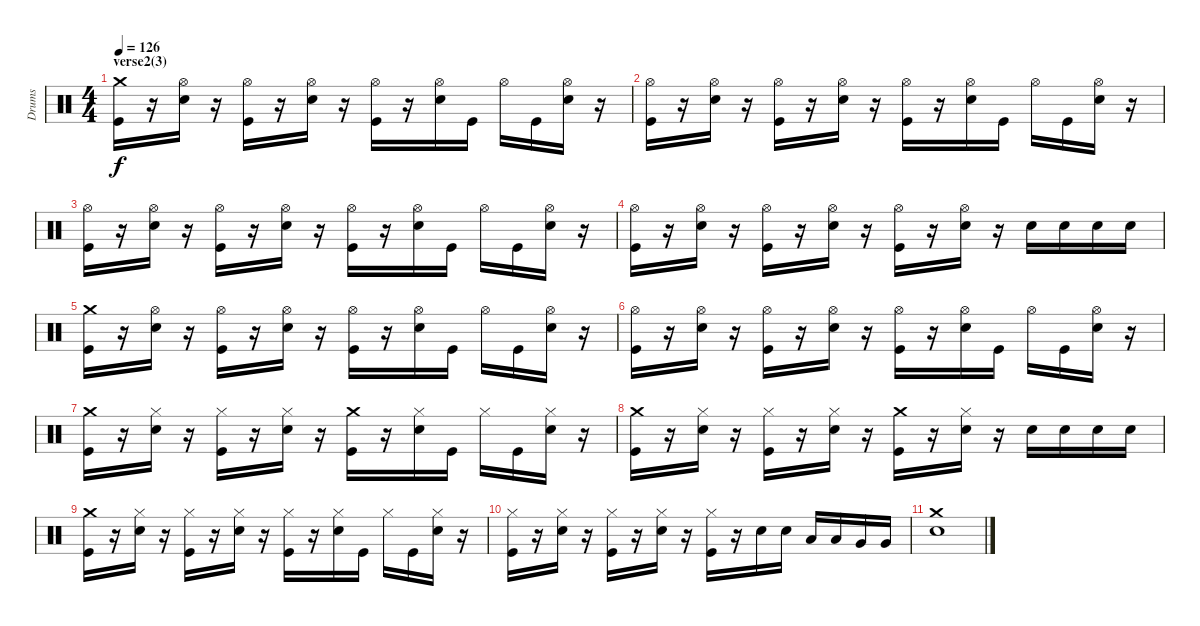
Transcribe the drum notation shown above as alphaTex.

\track ("Drums" "Drums") {instrument percussion}
\staff {score}
\articulation defaults
\ts (4 4)
\section ("" "verse2(3)")
\tempo 126
\clef neutral
\ks c
("Crash medium (hit)" "Kick (hit)").16{dy f} r.16 ("Hi-Hat (open)" "Snare (hit) 2").16 r.16 ("Hi-Hat (open)" "Kick (hit)").16 r.16 ("Hi-Hat (open)" "Snare (hit) 2").16 r.16 ("Hi-Hat (open)" "Kick (hit)").16 r.16 ("Hi-Hat (open)" "Snare (hit) 2").16 "Kick (hit)".16 "Hi-Hat (open)".16 "Kick (hit)".16 ("Hi-Hat (open)" "Snare (hit) 2").16 r.16 |
("Hi-Hat (open)" "Kick (hit)").16 r.16 ("Hi-Hat (open)" "Snare (hit) 2").16 r.16 ("Hi-Hat (open)" "Kick (hit)").16 r.16 ("Hi-Hat (open)" "Snare (hit) 2").16 r.16 ("Hi-Hat (open)" "Kick (hit)").16 r.16 ("Hi-Hat (open)" "Snare (hit) 2").16 "Kick (hit)".16 "Hi-Hat (open)".16 "Kick (hit)".16 ("Hi-Hat (open)" "Snare (hit) 2").16 r.16 |
("Hi-Hat (open)" "Kick (hit)").16 r.16 ("Hi-Hat (open)" "Snare (hit) 2").16 r.16 ("Hi-Hat (open)" "Kick (hit)").16 r.16 ("Hi-Hat (open)" "Snare (hit) 2").16 r.16 ("Hi-Hat (open)" "Kick (hit)").16 r.16 ("Hi-Hat (open)" "Snare (hit) 2").16 "Kick (hit)".16 "Hi-Hat (open)".16 "Kick (hit)".16 ("Hi-Hat (open)" "Snare (hit) 2").16 r.16 |
("Hi-Hat (open)" "Kick (hit)").16 r.16 ("Hi-Hat (open)" "Snare (hit) 2").16 r.16 ("Hi-Hat (open)" "Kick (hit)").16 r.16 ("Hi-Hat (open)" "Snare (hit) 2").16 r.16 ("Hi-Hat (open)" "Kick (hit)").16 r.16 ("Hi-Hat (open)" "Snare (hit) 2").16 r.16 "Snare (hit) 2".16 "Snare (hit) 2".16 "Snare (hit) 2".16 "Snare (hit) 2".16 |
("Crash medium (hit)" "Kick (hit)").16 r.16 ("Hi-Hat (open)" "Snare (hit) 2").16 r.16 ("Hi-Hat (open)" "Kick (hit)").16 r.16 ("Hi-Hat (open)" "Snare (hit) 2").16 r.16 ("Hi-Hat (open)" "Kick (hit)").16 r.16 ("Hi-Hat (open)" "Snare (hit) 2").16 "Kick (hit)".16 "Hi-Hat (open)".16 "Kick (hit)".16 ("Hi-Hat (open)" "Snare (hit) 2").16 r.16 |
("Hi-Hat (open)" "Kick (hit)").16 r.16 ("Hi-Hat (open)" "Snare (hit) 2").16 r.16 ("Hi-Hat (open)" "Kick (hit)").16 r.16 ("Hi-Hat (open)" "Snare (hit) 2").16 r.16 ("Hi-Hat (open)" "Kick (hit)").16 r.16 ("Hi-Hat (open)" "Snare (hit) 2").16 "Kick (hit)".16 "Hi-Hat (open)".16 "Kick (hit)".16 ("Hi-Hat (open)" "Snare (hit) 2").16 r.16 |
("Crash medium (hit)" "Kick (hit)").16 r.16 ("Hi-Hat (closed)" "Snare (hit) 2").16 r.16 ("Hi-Hat (closed)" "Kick (hit)").16 r.16 ("Hi-Hat (closed)" "Snare (hit) 2").16 r.16 ("Crash medium (hit)" "Kick (hit)").16 r.16 ("Hi-Hat (closed)" "Snare (hit) 2").16 "Kick (hit)".16 "Hi-Hat (closed)".16 "Kick (hit)".16 ("Hi-Hat (closed)" "Snare (hit) 2").16 r.16 |
("Crash medium (hit)" "Kick (hit)").16 r.16 ("Hi-Hat (closed)" "Snare (hit) 2").16 r.16 ("Hi-Hat (closed)" "Kick (hit)").16 r.16 ("Hi-Hat (closed)" "Snare (hit) 2").16 r.16 ("Crash medium (hit)" "Kick (hit)").16 r.16 ("Hi-Hat (closed)" "Snare (hit) 2").16 r.16 "Snare (hit) 2".16 "Snare (hit) 2".16 "Snare (hit) 2".16 "Snare (hit) 2".16 |
("Crash medium (hit)" "Kick (hit)").16 r.16 ("Hi-Hat (closed)" "Snare (hit) 2").16 r.16 ("Hi-Hat (closed)" "Kick (hit)").16 r.16 ("Hi-Hat (closed)" "Snare (hit) 2").16 r.16 ("Hi-Hat (closed)" "Kick (hit)").16 r.16 ("Hi-Hat (closed)" "Snare (hit) 2").16 "Kick (hit)".16 "Hi-Hat (closed)".16 "Kick (hit)".16 ("Hi-Hat (closed)" "Snare (hit) 2").16 r.16 |
("Hi-Hat (closed)" "Kick (hit)").16 r.16 ("Hi-Hat (closed)" "Snare (hit) 2").16 r.16 ("Hi-Hat (closed)" "Kick (hit)").16 r.16 ("Hi-Hat (closed)" "Snare (hit) 2").16 r.16 ("Hi-Hat (closed)" "Kick (hit)").16 r.16 "Snare (hit) 2".16 "Snare (hit) 2".16 "Low Tom (hit)".16 "Low Tom (hit)".16 "Very Low Tom (hit)".16 "Very Low Tom (hit)".16 |
("Crash medium (hit)" "Snare (hit) 2").1
